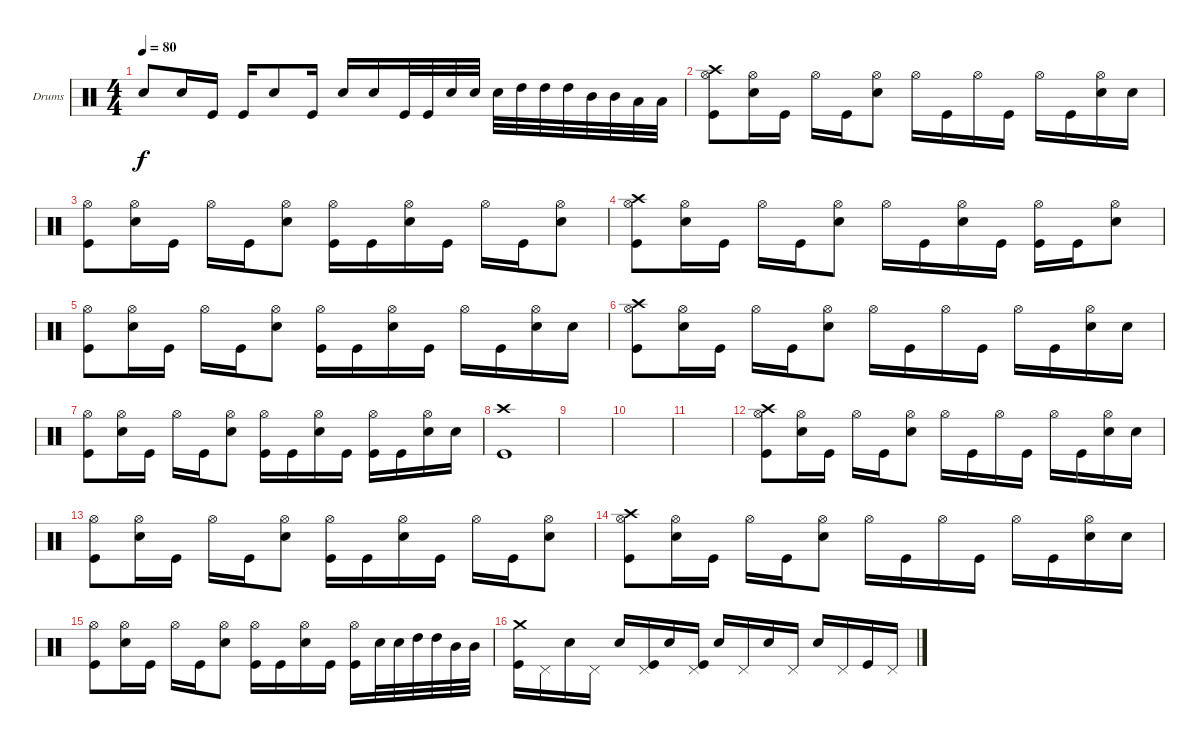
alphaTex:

\defaultSystemsLayout 4
\bracketExtendMode groupsimilarinstruments
\firstSystemTrackNameOrientation horizontal
\otherSystemsTrackNameOrientation horizontal
\track ("Drumkit" "Drums") {instrument percussion}
\staff {score}
\articulation defaults
\ts (4 4)
\tempo 80
\clef neutral
\scale
0.474178
\ks c "Snare (hit) 2".8{dy f} "Snare (hit) 2".16 "Kick (hit)".16 "Kick (hit)".16 "Snare (hit) 2".8 "Kick (hit)".16 "Snare (hit) 2".16 "Snare (hit) 2".16 "Kick (hit)".32 "Kick (hit)".32 "Snare (hit) 2".32 "Snare (hit) 2".32 "Snare (hit) 2".32 "High Tom (hit)".32 "High Tom (hit)".32 "High Tom (hit)".32 "Mid Tom (hit)".32 "Mid Tom (hit)".32 "Low Tom (hit)".32 "Low Tom (hit)".32
|
\scale
0.262911 ("Hi-Hat (open)" "Kick (hit)" "Crash high (hit)").8 ("Hi-Hat (open)" "Snare (hit) 2").16 "Kick (hit)".16 "Hi-Hat (open)".16 "Kick (hit)".16 ("Snare (hit) 2" "Hi-Hat (open)").8 "Hi-Hat (open)".16 "Kick (hit)".16 "Hi-Hat (open)".16 "Kick (hit)".16 "Hi-Hat (open)".16 "Kick (hit)".16 ("Snare (hit) 2" "Hi-Hat (open)").16 "Snare (hit) 2".16 |
\scale
0.262911 ("Hi-Hat (open)" "Kick (hit)").8 ("Hi-Hat (open)" "Snare (hit) 2").16 "Kick (hit)".16 "Hi-Hat (open)".16 "Kick (hit)".16 ("Snare (hit) 2" "Hi-Hat (open)").8 ("Hi-Hat (open)" "Kick (hit)").16 "Kick (hit)".16 ("Hi-Hat (open)" "Snare (hit) 2").16 "Kick (hit)".16 "Hi-Hat (open)".16 "Kick (hit)".16 ("Snare (hit) 2" "Hi-Hat (open)").8 |
\scale
0.333333 ("Hi-Hat (open)" "Kick (hit)" "Crash high (hit)").8 ("Hi-Hat (open)" "Snare (hit) 2").16 "Kick (hit)".16 "Hi-Hat (open)".16 "Kick (hit)".16 ("Snare (hit) 2" "Hi-Hat (open)").8 "Hi-Hat (open)".16 "Kick (hit)".16 ("Hi-Hat (open)" "Snare (hit) 2").16 "Kick (hit)".16 ("Hi-Hat (open)" "Kick (hit)").16 "Kick (hit)".16 ("Snare (hit) 2" "Hi-Hat (open)").8 |
\scale
0.333333 ("Hi-Hat (open)" "Kick (hit)").8 ("Hi-Hat (open)" "Snare (hit) 2").16 "Kick (hit)".16 "Hi-Hat (open)".16 "Kick (hit)".16 ("Snare (hit) 2" "Hi-Hat (open)").8 ("Hi-Hat (open)" "Kick (hit)").16 "Kick (hit)".16 ("Hi-Hat (open)" "Snare (hit) 2").16 "Kick (hit)".16 "Hi-Hat (open)".16 "Kick (hit)".16 ("Snare (hit) 2" "Hi-Hat (open)").16 "Snare (hit) 2".16 |
\scale
0.333333 ("Hi-Hat (open)" "Kick (hit)" "Crash high (hit)").8 ("Hi-Hat (open)" "Snare (hit) 2").16 "Kick (hit)".16 "Hi-Hat (open)".16 "Kick (hit)".16 ("Snare (hit) 2" "Hi-Hat (open)").8 "Hi-Hat (open)".16 "Kick (hit)".16 "Hi-Hat (open)".16 "Kick (hit)".16 "Hi-Hat (open)".16 "Kick (hit)".16 ("Snare (hit) 2" "Hi-Hat (open)").16 "Snare (hit) 2".16 |
\scale
0.333333 ("Hi-Hat (open)" "Kick (hit)").8 ("Hi-Hat (open)" "Snare (hit) 2").16 "Kick (hit)".16 "Hi-Hat (open)".16 "Kick (hit)".16 ("Snare (hit) 2" "Hi-Hat (open)").8 ("Hi-Hat (open)" "Kick (hit)").16 "Kick (hit)".16 ("Hi-Hat (open)" "Snare (hit) 2").16 "Kick (hit)".16 ("Hi-Hat (open)" "Kick (hit)").16 "Kick (hit)".16 ("Snare (hit) 2" "Hi-Hat (open)").16 "Snare (hit) 2".16 |
\scale
0.333333 ("Kick (hit)" "Crash high (hit)").1 |
\scale
0.333333 |
\scale
0.333333 |
\scale
0.333333 |
\scale
0.333333 ("Hi-Hat (open)" "Kick (hit)" "Crash high (hit)").8 ("Hi-Hat (open)" "Snare (hit) 2").16 "Kick (hit)".16 "Hi-Hat (open)".16 "Kick (hit)".16 ("Snare (hit) 2" "Hi-Hat (open)").8 "Hi-Hat (open)".16 "Kick (hit)".16 "Hi-Hat (open)".16 "Kick (hit)".16 "Hi-Hat (open)".16 "Kick (hit)".16 ("Snare (hit) 2" "Hi-Hat (open)").16 "Snare (hit) 2".16 |
\scale
0.333333 ("Hi-Hat (open)" "Kick (hit)").8 ("Hi-Hat (open)" "Snare (hit) 2").16 "Kick (hit)".16 "Hi-Hat (open)".16 "Kick (hit)".16 ("Snare (hit) 2" "Hi-Hat (open)").8 ("Hi-Hat (open)" "Kick (hit)").16 "Kick (hit)".16 ("Hi-Hat (open)" "Snare (hit) 2").16 "Kick (hit)".16 "Hi-Hat (open)".16 "Kick (hit)".16 ("Snare (hit) 2" "Hi-Hat (open)").8 |
\scale
0.333333 ("Hi-Hat (open)" "Kick (hit)" "Crash high (hit)").8 ("Hi-Hat (open)" "Snare (hit) 2").16 "Kick (hit)".16 "Hi-Hat (open)".16 "Kick (hit)".16 ("Snare (hit) 2" "Hi-Hat (open)").8 "Hi-Hat (open)".16 "Kick (hit)".16 "Hi-Hat (open)".16 "Kick (hit)".16 "Hi-Hat (open)".16 "Kick (hit)".16 ("Snare (hit) 2" "Hi-Hat (open)").16 "Snare (hit) 2".16 |
\scale
0.333333 ("Hi-Hat (open)" "Kick (hit)").8 ("Hi-Hat (open)" "Snare (hit) 2").16 "Kick (hit)".16 "Hi-Hat (open)".16 "Kick (hit)".16 ("Snare (hit) 2" "Hi-Hat (open)").8 ("Hi-Hat (open)" "Kick (hit)").16 "Kick (hit)".16 ("Hi-Hat (open)" "Snare (hit) 2").16 "Kick (hit)".16 ("Hi-Hat (open)" "Kick (hit)").16 "Snare (hit) 2".32 "Snare (hit) 2".32 "High Tom (hit)".32 "High Tom (hit)".32 "Mid Tom (hit)".32 "Mid Tom (hit)".32 |
\scale
0.333333 ("Kick (hit)" "Crash medium (hit)").16 "Pedal Hi-Hat (hit)".16 "Snare (hit) 2".16 "Pedal Hi-Hat (hit)".16 "Snare (hit) 2".16 ("Kick (hit)" "Pedal Hi-Hat (hit)").16 "Snare (hit) 2".16 ("Kick (hit)" "Pedal Hi-Hat (hit)").16 "Snare (hit) 2".16 "Pedal Hi-Hat (hit)".16 "Snare (hit) 2".16 "Pedal Hi-Hat (hit)".16 "Snare (hit) 2".16 "Pedal Hi-Hat (hit)".16 "Kick (hit)".16 "Pedal Hi-Hat (hit)".16
